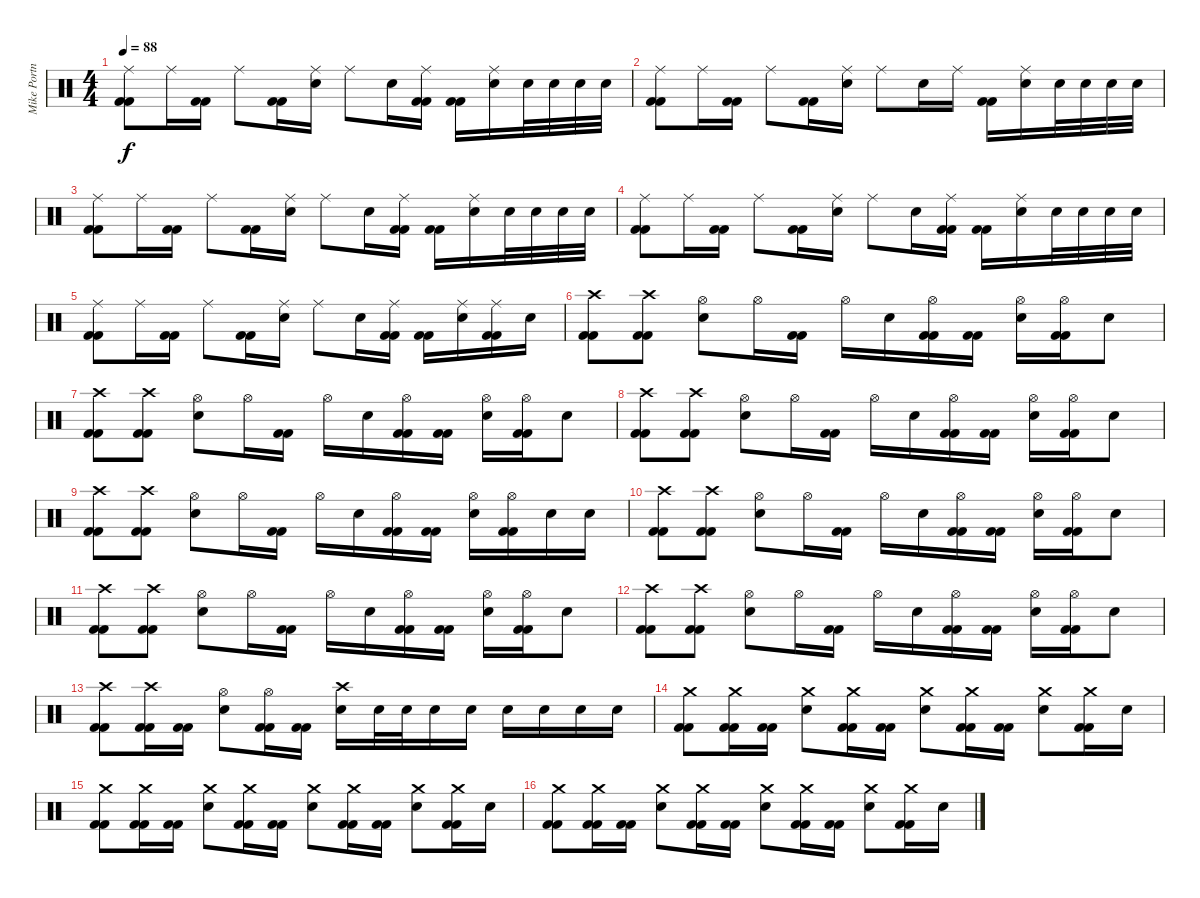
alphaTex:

\track ("Mike Portnoy" "Mike Portn") {instrument percussion}
\staff {score}
\articulation defaults
\ts (4 4)
\tempo 88
\clef neutral
\ks c
("Ride (middle)" "Kick (hit) 2" "Kick (hit) 2").8{dy f} "Ride (middle)".16 ("Kick (hit) 2" "Kick (hit) 2").16 "Ride (middle)".8 ("Kick (hit) 2" "Kick (hit) 2").16 ("Ride (middle)" "Snare (hit) 2").16 "Ride (middle)".8 "Snare (hit) 2".16 ("Ride (middle)" "Kick (hit) 2" "Kick (hit) 2").16 ("Kick (hit) 2" "Kick (hit) 2").16 ("Ride (middle)" "Snare (hit) 2").16 "Snare (hit) 2".32 "Snare (hit) 2".32 "Snare (hit) 2".32 "Snare (hit) 2".32 |
("Ride (middle)" "Kick (hit) 2" "Kick (hit) 2").8 "Ride (middle)".16 ("Kick (hit) 2" "Kick (hit) 2").16 "Ride (middle)".8 ("Kick (hit) 2" "Kick (hit) 2").16 ("Ride (middle)" "Snare (hit) 2").16 "Ride (middle)".8 "Snare (hit) 2".16 "Ride (middle)".16 ("Kick (hit) 2" "Kick (hit) 2").16 ("Ride (middle)" "Snare (hit) 2").16 "Snare (hit) 2".32 "Snare (hit) 2".32 "Snare (hit) 2".32 "Snare (hit) 2".32 |
("Ride (middle)" "Kick (hit) 2" "Kick (hit) 2").8 "Ride (middle)".16 ("Kick (hit) 2" "Kick (hit) 2").16 "Ride (middle)".8 ("Kick (hit) 2" "Kick (hit) 2").16 ("Ride (middle)" "Snare (hit) 2").16 "Ride (middle)".8 "Snare (hit) 2".16 ("Ride (middle)" "Kick (hit) 2" "Kick (hit) 2").16 ("Kick (hit) 2" "Kick (hit) 2").16 ("Ride (middle)" "Snare (hit) 2").16 "Snare (hit) 2".32 "Snare (hit) 2".32 "Snare (hit) 2".32 "Snare (hit) 2".32 |
("Ride (middle)" "Kick (hit) 2" "Kick (hit) 2").8 "Ride (middle)".16 ("Kick (hit) 2" "Kick (hit) 2").16 "Ride (middle)".8 ("Kick (hit) 2" "Kick (hit) 2").16 ("Ride (middle)" "Snare (hit) 2").16 "Ride (middle)".8 "Snare (hit) 2".16 ("Ride (middle)" "Kick (hit) 2" "Kick (hit) 2").16 ("Kick (hit) 2" "Kick (hit) 2").16 ("Ride (middle)" "Snare (hit) 2").16 "Snare (hit) 2".32 "Snare (hit) 2".32 "Snare (hit) 2".32 "Snare (hit) 2".32 |
("Ride (middle)" "Kick (hit) 2" "Kick (hit) 2").8 "Ride (middle)".16 ("Kick (hit) 2" "Kick (hit) 2").16 "Ride (middle)".8 ("Kick (hit) 2" "Kick (hit) 2").16 ("Ride (middle)" "Snare (hit) 2").16 "Ride (middle)".8 "Snare (hit) 2".16 ("Ride (middle)" "Kick (hit) 2" "Kick (hit) 2").16 ("Kick (hit) 2" "Kick (hit) 2").16 ("Ride (middle)" "Snare (hit) 2").16 ("Ride (middle)" "Kick (hit) 2" "Kick (hit) 2").16 "Snare (hit) 2".16 |
("Crash high (hit)" "Kick (hit) 2" "Kick (hit) 2").8 ("Crash high (hit)" "Kick (hit) 2" "Kick (hit) 2").8 ("Hi-Hat (open)" "Snare (hit) 2").8 "Hi-Hat (open)".16 ("Kick (hit) 2" "Kick (hit) 2").16 "Hi-Hat (open)".16 "Snare (hit) 2".16 ("Hi-Hat (open)" "Kick (hit) 2" "Kick (hit) 2").16 ("Kick (hit) 2" "Kick (hit) 2").16 ("Hi-Hat (open)" "Snare (hit) 2").16 ("Hi-Hat (open)" "Kick (hit) 2" "Kick (hit) 2").16 "Snare (hit) 2".8 |
("Crash high (hit)" "Kick (hit) 2" "Kick (hit) 2").8 ("Crash high (hit)" "Kick (hit) 2" "Kick (hit) 2").8 ("Hi-Hat (open)" "Snare (hit) 2").8 "Hi-Hat (open)".16 ("Kick (hit) 2" "Kick (hit) 2").16 "Hi-Hat (open)".16 "Snare (hit) 2".16 ("Hi-Hat (open)" "Kick (hit) 2" "Kick (hit) 2").16 ("Kick (hit) 2" "Kick (hit) 2").16 ("Hi-Hat (open)" "Snare (hit) 2").16 ("Hi-Hat (open)" "Kick (hit) 2" "Kick (hit) 2").16 "Snare (hit) 2".8 |
("Crash high (hit)" "Kick (hit) 2" "Kick (hit) 2").8 ("Crash high (hit)" "Kick (hit) 2" "Kick (hit) 2").8 ("Hi-Hat (open)" "Snare (hit) 2").8 "Hi-Hat (open)".16 ("Kick (hit) 2" "Kick (hit) 2").16 "Hi-Hat (open)".16 "Snare (hit) 2".16 ("Hi-Hat (open)" "Kick (hit) 2" "Kick (hit) 2").16 ("Kick (hit) 2" "Kick (hit) 2").16 ("Hi-Hat (open)" "Snare (hit) 2").16 ("Hi-Hat (open)" "Kick (hit) 2" "Kick (hit) 2").16 "Snare (hit) 2".8 |
("Crash high (hit)" "Kick (hit) 2" "Kick (hit) 2").8 ("Crash high (hit)" "Kick (hit) 2" "Kick (hit) 2").8 ("Hi-Hat (open)" "Snare (hit) 2").8 "Hi-Hat (open)".16 ("Kick (hit) 2" "Kick (hit) 2").16 "Hi-Hat (open)".16 "Snare (hit) 2".16 ("Hi-Hat (open)" "Kick (hit) 2" "Kick (hit) 2").16 ("Kick (hit) 2" "Kick (hit) 2").16 ("Hi-Hat (open)" "Snare (hit) 2").16 ("Hi-Hat (open)" "Kick (hit) 2" "Kick (hit) 2").16 "Snare (hit) 2".16 "Snare (hit) 2".16 |
("Crash high (hit)" "Kick (hit) 2" "Kick (hit) 2").8 ("Crash high (hit)" "Kick (hit) 2" "Kick (hit) 2").8 ("Hi-Hat (open)" "Snare (hit) 2").8 "Hi-Hat (open)".16 ("Kick (hit) 2" "Kick (hit) 2").16 "Hi-Hat (open)".16 "Snare (hit) 2".16 ("Hi-Hat (open)" "Kick (hit) 2" "Kick (hit) 2").16 ("Kick (hit) 2" "Kick (hit) 2").16 ("Hi-Hat (open)" "Snare (hit) 2").16 ("Hi-Hat (open)" "Kick (hit) 2" "Kick (hit) 2").16 "Snare (hit) 2".8 |
("Crash high (hit)" "Kick (hit) 2" "Kick (hit) 2").8 ("Crash high (hit)" "Kick (hit) 2" "Kick (hit) 2").8 ("Hi-Hat (open)" "Snare (hit) 2").8 "Hi-Hat (open)".16 ("Kick (hit) 2" "Kick (hit) 2").16 "Hi-Hat (open)".16 "Snare (hit) 2".16 ("Hi-Hat (open)" "Kick (hit) 2" "Kick (hit) 2").16 ("Kick (hit) 2" "Kick (hit) 2").16 ("Hi-Hat (open)" "Snare (hit) 2").16 ("Hi-Hat (open)" "Kick (hit) 2" "Kick (hit) 2").16 "Snare (hit) 2".8 |
("Crash high (hit)" "Kick (hit) 2" "Kick (hit) 2").8 ("Crash high (hit)" "Kick (hit) 2" "Kick (hit) 2").8 ("Hi-Hat (open)" "Snare (hit) 2").8 "Hi-Hat (open)".16 ("Kick (hit) 2" "Kick (hit) 2").16 "Hi-Hat (open)".16 "Snare (hit) 2".16 ("Hi-Hat (open)" "Kick (hit) 2" "Kick (hit) 2").16 ("Kick (hit) 2" "Kick (hit) 2").16 ("Hi-Hat (open)" "Snare (hit) 2").16 ("Hi-Hat (open)" "Kick (hit) 2" "Kick (hit) 2").16 "Snare (hit) 2".8 |
("Crash high (hit)" "Kick (hit) 2" "Kick (hit) 2").8 ("Crash high (hit)" "Kick (hit) 2" "Kick (hit) 2").16 ("Kick (hit) 2" "Kick (hit) 2").16 ("Hi-Hat (open)" "Snare (hit) 2").8 ("Hi-Hat (open)" "Kick (hit) 2" "Kick (hit) 2").16 ("Kick (hit) 2" "Kick (hit) 2").16 ("Crash high (hit)" "Snare (hit) 2").16 "Snare (hit) 2".32 "Snare (hit) 2".32 "Snare (hit) 2".16 "Snare (hit) 2".16 "Snare (hit) 2".16 "Snare (hit) 2".16 "Snare (hit) 2".16 "Snare (hit) 2".16 |
("Crash medium (hit)" "Kick (hit) 2" "Kick (hit) 2").8 ("Crash medium (hit)" "Kick (hit) 2" "Kick (hit) 2").16 ("Kick (hit) 2" "Kick (hit) 2").16 ("Crash medium (hit)" "Snare (hit) 2").8 ("Crash medium (hit)" "Kick (hit) 2" "Kick (hit) 2").16 ("Kick (hit) 2" "Kick (hit) 2").16 ("Crash medium (hit)" "Snare (hit) 2").8 ("Crash medium (hit)" "Kick (hit) 2" "Kick (hit) 2").16 ("Kick (hit) 2" "Kick (hit) 2").16 ("Crash medium (hit)" "Snare (hit) 2").8 ("Crash medium (hit)" "Kick (hit) 2" "Kick (hit) 2").16 "Snare (hit) 2".16 |
("Crash medium (hit)" "Kick (hit) 2" "Kick (hit) 2").8 ("Crash medium (hit)" "Kick (hit) 2" "Kick (hit) 2").16 ("Kick (hit) 2" "Kick (hit) 2").16 ("Crash medium (hit)" "Snare (hit) 2").8 ("Crash medium (hit)" "Kick (hit) 2" "Kick (hit) 2").16 ("Kick (hit) 2" "Kick (hit) 2").16 ("Crash medium (hit)" "Snare (hit) 2").8 ("Crash medium (hit)" "Kick (hit) 2" "Kick (hit) 2").16 ("Kick (hit) 2" "Kick (hit) 2").16 ("Crash medium (hit)" "Snare (hit) 2").8 ("Crash medium (hit)" "Kick (hit) 2" "Kick (hit) 2").16 "Snare (hit) 2".16 |
("Crash medium (hit)" "Kick (hit) 2" "Kick (hit) 2").8 ("Crash medium (hit)" "Kick (hit) 2" "Kick (hit) 2").16 ("Kick (hit) 2" "Kick (hit) 2").16 ("Crash medium (hit)" "Snare (hit) 2").8 ("Crash medium (hit)" "Kick (hit) 2" "Kick (hit) 2").16 ("Kick (hit) 2" "Kick (hit) 2").16 ("Crash medium (hit)" "Snare (hit) 2").8 ("Crash medium (hit)" "Kick (hit) 2" "Kick (hit) 2").16 ("Kick (hit) 2" "Kick (hit) 2").16 ("Crash medium (hit)" "Snare (hit) 2").8 ("Crash medium (hit)" "Kick (hit) 2" "Kick (hit) 2").16 "Snare (hit) 2".16
